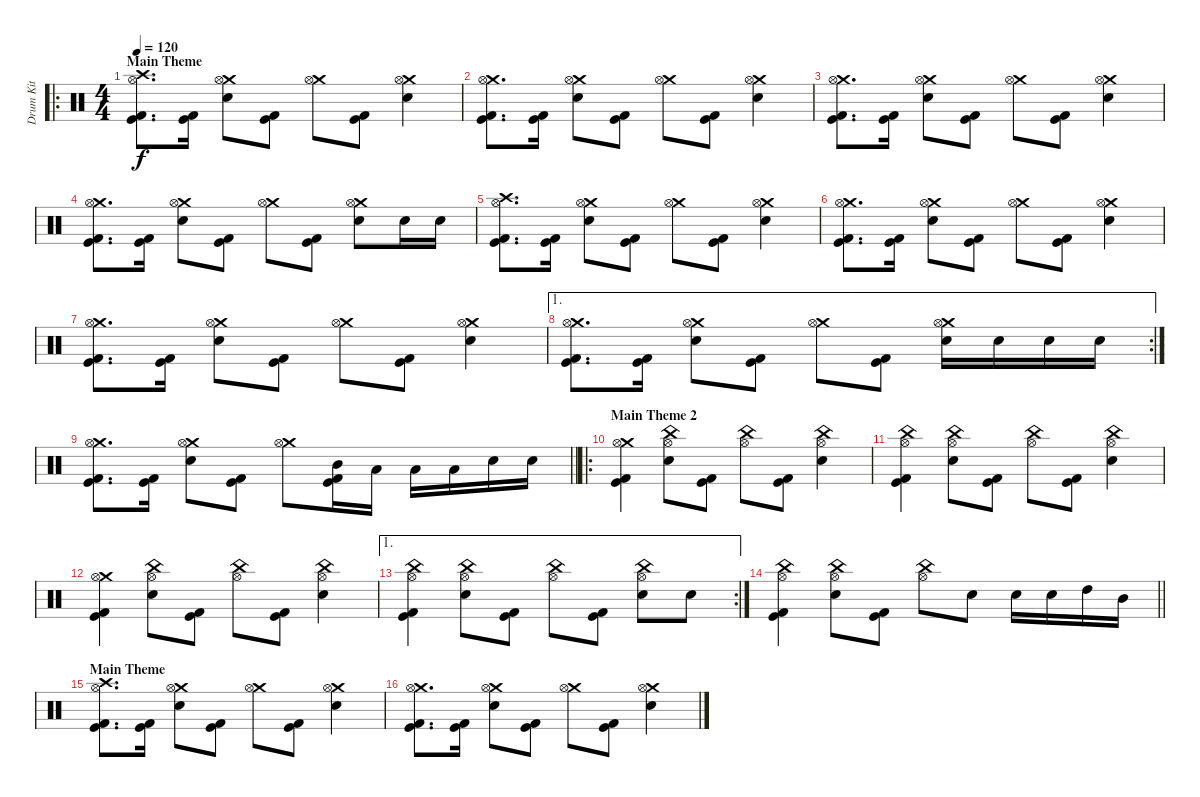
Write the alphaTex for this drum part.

\track ("Drum Kit" "Drum Kit") {instrument percussion}
\staff {score}
\articulation defaults
\ro
\ts (4 4)
\section ("" "Main Theme")
\tempo 120
\clef neutral
\ks c
("Crash high (hit)" "Hi-Hat (open)" "Kick (hit)" "Kick (hit) 2").8{d dy f} ("Kick (hit)" "Kick (hit) 2").16 ("Crash medium (hit)" "Hi-Hat (open)" "Electric Snare (hit)").8 ("Kick (hit)" "Kick (hit) 2").8 ("Crash medium (hit)" "Hi-Hat (open)").8 ("Kick (hit)" "Kick (hit) 2").8 ("Crash medium (hit)" "Hi-Hat (open)" "Electric Snare (hit)").4 |
("Crash medium (hit)" "Hi-Hat (open)" "Kick (hit)" "Kick (hit) 2").8{d} ("Kick (hit)" "Kick (hit) 2").16 ("Crash medium (hit)" "Hi-Hat (open)" "Electric Snare (hit)").8 ("Kick (hit)" "Kick (hit) 2").8 ("Crash medium (hit)" "Hi-Hat (open)").8 ("Kick (hit)" "Kick (hit) 2").8 ("Crash medium (hit)" "Hi-Hat (open)" "Electric Snare (hit)").4 |
("Crash medium (hit)" "Hi-Hat (open)" "Kick (hit)" "Kick (hit) 2").8{d} ("Kick (hit)" "Kick (hit) 2").16 ("Crash medium (hit)" "Hi-Hat (open)" "Electric Snare (hit)").8 ("Kick (hit)" "Kick (hit) 2").8 ("Crash medium (hit)" "Hi-Hat (open)").8 ("Kick (hit)" "Kick (hit) 2").8 ("Crash medium (hit)" "Hi-Hat (open)" "Electric Snare (hit)").4 |
("Crash medium (hit)" "Hi-Hat (open)" "Kick (hit)" "Kick (hit) 2").8{d} ("Kick (hit)" "Kick (hit) 2").16 ("Crash medium (hit)" "Hi-Hat (open)" "Electric Snare (hit)").8 ("Kick (hit)" "Kick (hit) 2").8 ("Crash medium (hit)" "Hi-Hat (open)").8 ("Kick (hit)" "Kick (hit) 2").8 ("Crash medium (hit)" "Hi-Hat (open)" "Electric Snare (hit)").8 "Electric Snare (hit)".16 "Electric Snare (hit)".16 |
("Crash high (hit)" "Hi-Hat (open)" "Kick (hit)" "Kick (hit) 2").8{d} ("Kick (hit)" "Kick (hit) 2").16 ("Crash medium (hit)" "Hi-Hat (open)" "Electric Snare (hit)").8 ("Kick (hit)" "Kick (hit) 2").8 ("Crash medium (hit)" "Hi-Hat (open)").8 ("Kick (hit)" "Kick (hit) 2").8 ("Crash medium (hit)" "Hi-Hat (open)" "Electric Snare (hit)").4 |
("Crash medium (hit)" "Hi-Hat (open)" "Kick (hit)" "Kick (hit) 2").8{d} ("Kick (hit)" "Kick (hit) 2").16 ("Crash medium (hit)" "Hi-Hat (open)" "Electric Snare (hit)").8 ("Kick (hit)" "Kick (hit) 2").8 ("Crash medium (hit)" "Hi-Hat (open)").8 ("Kick (hit)" "Kick (hit) 2").8 ("Crash medium (hit)" "Hi-Hat (open)" "Electric Snare (hit)").4 |
("Crash medium (hit)" "Hi-Hat (open)" "Kick (hit)" "Kick (hit) 2").8{d} ("Kick (hit)" "Kick (hit) 2").16 ("Crash medium (hit)" "Hi-Hat (open)" "Electric Snare (hit)").8 ("Kick (hit)" "Kick (hit) 2").8 ("Crash medium (hit)" "Hi-Hat (open)").8 ("Kick (hit)" "Kick (hit) 2").8 ("Crash medium (hit)" "Hi-Hat (open)" "Electric Snare (hit)").4 |
\ae 1
\rc 2
("Crash medium (hit)" "Hi-Hat (open)" "Kick (hit)" "Kick (hit) 2").8{d} ("Kick (hit)" "Kick (hit) 2").16 ("Crash medium (hit)" "Hi-Hat (open)" "Electric Snare (hit)").8 ("Kick (hit)" "Kick (hit) 2").8 ("Crash medium (hit)" "Hi-Hat (open)").8 ("Kick (hit)" "Kick (hit) 2").8 ("Crash medium (hit)" "Hi-Hat (open)" "Electric Snare (hit)").16 "Electric Snare (hit)".16 "Electric Snare (hit)".16 "Electric Snare (hit)".16 |
\barLineRight lightlight
("Crash medium (hit)" "Hi-Hat (open)" "Kick (hit)" "Kick (hit) 2").8{d} ("Kick (hit)" "Kick (hit) 2").16 ("Crash medium (hit)" "Hi-Hat (open)" "Electric Snare (hit)").8 ("Kick (hit)" "Kick (hit) 2").8 ("Crash medium (hit)" "Hi-Hat (open)").8 ("Mid Tom (hit)" "Kick (hit)" "Kick (hit) 2").16 "Low Tom (hit)".16 "Low Floor Tom (hit)".16 "Low Floor Tom (hit)".16 "Electric Snare (hit)".16 "Electric Snare (hit)".16 |
\ro
\section ("" "Main Theme 2")
("Crash medium (hit)" "Hi-Hat (open)" "Kick (hit)" "Kick (hit) 2").4 ("China (hit)" "Hi-Hat (open)" "Electric Snare (hit)").8 ("Kick (hit)" "Kick (hit) 2").8 ("China (hit)" "Hi-Hat (open)").8 ("Kick (hit)" "Kick (hit) 2").8 ("China (hit)" "Hi-Hat (open)" "Electric Snare (hit)").4 |
("China (hit)" "Hi-Hat (open)" "Kick (hit)" "Kick (hit) 2").4 ("China (hit)" "Hi-Hat (open)" "Electric Snare (hit)").8 ("Kick (hit)" "Kick (hit) 2").8 ("China (hit)" "Hi-Hat (open)").8 ("Kick (hit)" "Kick (hit) 2").8 ("China (hit)" "Hi-Hat (open)" "Electric Snare (hit)").4 |
("Crash medium (hit)" "Hi-Hat (open)" "Kick (hit)" "Kick (hit) 2").4 ("China (hit)" "Hi-Hat (open)" "Electric Snare (hit)").8 ("Kick (hit)" "Kick (hit) 2").8 ("China (hit)" "Hi-Hat (open)").8 ("Kick (hit)" "Kick (hit) 2").8 ("China (hit)" "Hi-Hat (open)" "Electric Snare (hit)").4 |
\ae 1
\rc 2
("China (hit)" "Hi-Hat (open)" "Kick (hit)" "Kick (hit) 2").4 ("China (hit)" "Hi-Hat (open)" "Electric Snare (hit)").8 ("Kick (hit)" "Kick (hit) 2").8 ("China (hit)" "Hi-Hat (open)").8 ("Kick (hit)" "Kick (hit) 2").8 ("China (hit)" "Hi-Hat (open)" "Electric Snare (hit)").8 "Electric Snare (hit)".8 |
\barLineRight lightlight
("China (hit)" "Hi-Hat (open)" "Kick (hit)" "Kick (hit) 2").4 ("China (hit)" "Hi-Hat (open)" "Electric Snare (hit)").8 ("Kick (hit)" "Kick (hit) 2").8 ("China (hit)" "Hi-Hat (open)").8 "Electric Snare (hit)".8 "Electric Snare (hit)".16 "Electric Snare (hit)".16 "High Tom (hit)".16 "Mid Tom (hit)".16 |
\section ("" "Main Theme")
("Crash high (hit)" "Hi-Hat (open)" "Kick (hit)" "Kick (hit) 2").8{d} ("Kick (hit)" "Kick (hit) 2").16 ("Crash medium (hit)" "Hi-Hat (open)" "Electric Snare (hit)").8 ("Kick (hit)" "Kick (hit) 2").8 ("Crash medium (hit)" "Hi-Hat (open)").8 ("Kick (hit)" "Kick (hit) 2").8 ("Crash medium (hit)" "Hi-Hat (open)" "Electric Snare (hit)").4 |
("Crash medium (hit)" "Hi-Hat (open)" "Kick (hit)" "Kick (hit) 2").8{d} ("Kick (hit)" "Kick (hit) 2").16 ("Crash medium (hit)" "Hi-Hat (open)" "Electric Snare (hit)").8 ("Kick (hit)" "Kick (hit) 2").8 ("Crash medium (hit)" "Hi-Hat (open)").8 ("Kick (hit)" "Kick (hit) 2").8 ("Crash medium (hit)" "Hi-Hat (open)" "Electric Snare (hit)").4
